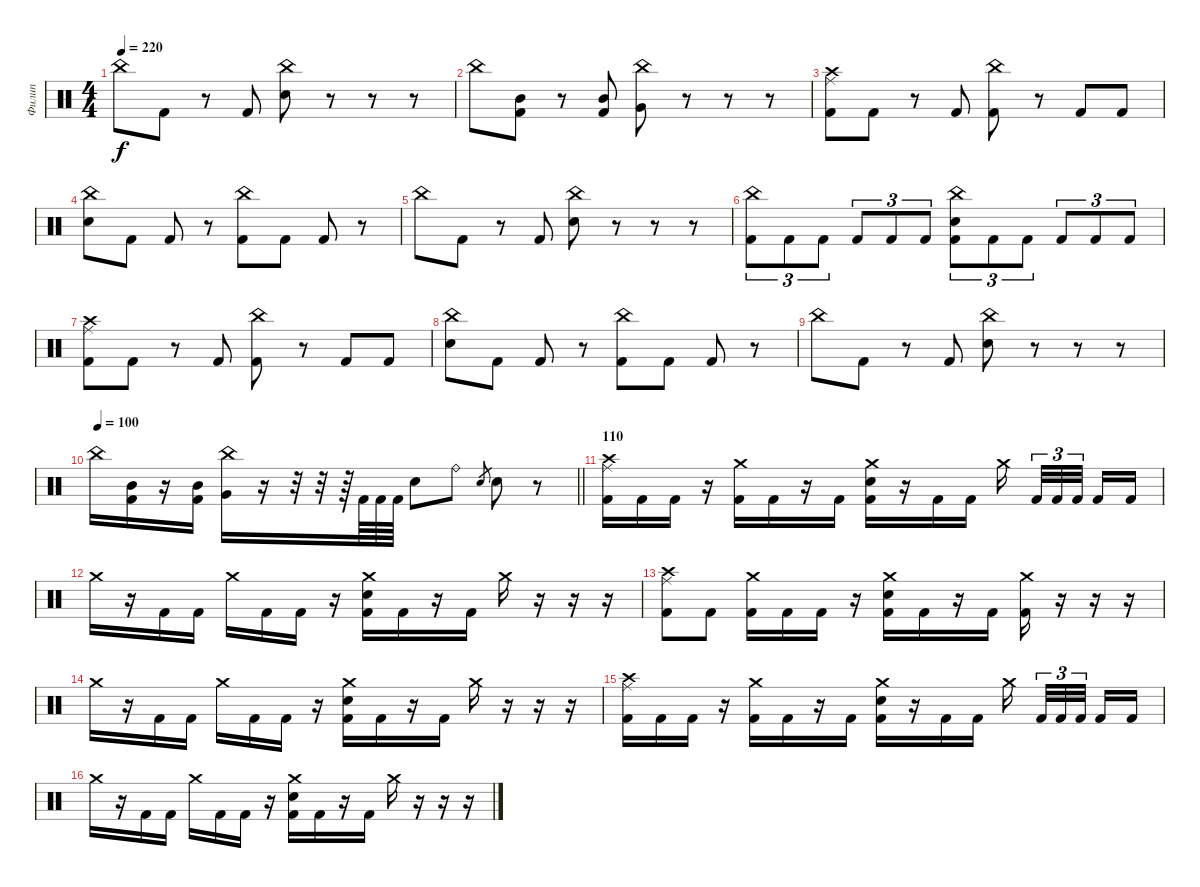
\track ("Филип" "Филип") {instrument percussion}
\staff {score}
\articulation defaults
\ts (4 4)
\tempo 220
\clef neutral
\ks c "China (hit)".8{dy f} "Kick (hit) 2".8
r.8 "Kick (hit) 2".8 ("China (hit)" "Electric Snare (hit)").8 r.8 r.8 r.8 |
"China (hit)".8 ("Mid Tom (hit)" "Kick (hit) 2").8 r.8 ("Mid Tom (hit)" "Kick (hit) 2").8 ("China (hit)" "Very Low Tom (hit)").8 r.8 r.8 r.8 |
("Ride (middle)" "Crash high (hit)" "Kick (hit) 2").8 "Kick (hit) 2".8 r.8 "Kick (hit) 2".8 ("China (hit)" "Kick (hit) 2").8 r.8 "Kick (hit) 2".8 "Kick (hit) 2".8 |
("China (hit)" "Electric Snare (hit)").8 "Kick (hit) 2".8 "Kick (hit) 2".8 r.8 ("China (hit)" "Kick (hit) 2").8 "Kick (hit) 2".8 "Kick (hit) 2".8 r.8 |
"China (hit)".8 "Kick (hit) 2".8 r.8 "Kick (hit) 2".8 ("China (hit)" "Electric Snare (hit)").8 r.8 r.8 r.8 |
("China (hit)" "Kick (hit) 2").8{tu (3 2)} "Kick (hit) 2".8{tu (3 2)} "Kick (hit) 2".8{tu (3 2)} "Kick (hit) 2".8{tu (3 2)} "Kick (hit) 2".8{tu (3 2)} "Kick (hit) 2".8{tu (3 2)} ("China (hit)" "Electric Snare (hit)" "Kick (hit) 2").8{tu (3 2)} "Kick (hit) 2".8{tu (3 2)} "Kick (hit) 2".8{tu (3 2)} "Kick (hit) 2".8{tu (3 2)} "Kick (hit) 2".8{tu (3 2)} "Kick (hit) 2".8{tu (3 2)} |
("Ride (middle)" "Crash high (hit)" "Kick (hit) 2").8 "Kick (hit) 2".8 r.8 "Kick (hit) 2".8 ("China (hit)" "Kick (hit) 2").8 r.8 "Kick (hit) 2".8 "Kick (hit) 2".8 |
("China (hit)" "Electric Snare (hit)").8 "Kick (hit) 2".8 "Kick (hit) 2".8 r.8 ("China (hit)" "Kick (hit) 2").8 "Kick (hit) 2".8 "Kick (hit) 2".8 r.8 |
"China (hit)".8 "Kick (hit) 2".8 r.8 "Kick (hit) 2".8 ("China (hit)" "Electric Snare (hit)").8 r.8 r.8 r.8 |
\tempo 110
\tempo 100
\barLineRight lightlight "China (hit)".16
("Mid Tom (hit)" "Kick (hit) 2").16 r.16 ("Mid Tom (hit)" "Kick (hit) 2").16 ("China (hit)" "Very Low Tom (hit)").16 r.16 r.32 r.32 r.64 "Kick (hit) 2".64 "Kick (hit) 2".64 "Kick (hit) 2".64 "Electric Snare (hit)".8 "Ride (bell)".8 "Electric Snare (hit)".8{gr} "Electric Snare (hit)".8 r.8 |
\section ("" "110")
("Crash high (hit)" "Ride (middle)" "Kick (hit) 2").16 "Kick (hit) 2".16 "Kick (hit) 2".16 r.16 ("Crash medium (hit)" "Kick (hit) 2").16 "Kick (hit) 2".16 r.16 "Kick (hit) 2".16 ("Crash medium (hit)" "Electric Snare (hit)" "Kick (hit) 2").16 r.16 "Kick (hit) 2".16 "Kick (hit) 2".16 "Crash medium (hit)".16{beam splitsecondary} "Kick (hit) 2".32{tu (3 2)} "Kick (hit) 2".32{tu (3 2)} "Kick (hit) 2".32{tu (3 2) beam splitsecondary} "Kick (hit) 2".16 "Kick (hit) 2".16 |
"Crash medium (hit)".16 r.16 "Kick (hit) 2".16 "Kick (hit) 2".16 "Crash medium (hit)".16 "Kick (hit) 2".16 "Kick (hit) 2".16 r.16 ("Crash medium (hit)" "Electric Snare (hit)" "Kick (hit) 2").16 "Kick (hit) 2".16 r.16 "Kick (hit) 2".16 "Crash medium (hit)".16 r.16 r.16 r.16 |
("Ride (middle)" "Crash high (hit)" "Kick (hit) 2").8 "Kick (hit) 2".8 ("Crash medium (hit)" "Kick (hit) 2").16 "Kick (hit) 2".16 "Kick (hit) 2".16 r.16 ("Crash medium (hit)" "Electric Snare (hit)" "Kick (hit) 2").16 "Kick (hit) 2".16 r.16 "Kick (hit) 2".16 ("Crash medium (hit)" "Kick (hit) 2").16 r.16 r.16 r.16 |
"Crash medium (hit)".16 r.16 "Kick (hit) 2".16 "Kick (hit) 2".16 "Crash medium (hit)".16 "Kick (hit) 2".16 "Kick (hit) 2".16 r.16 ("Crash medium (hit)" "Electric Snare (hit)" "Kick (hit) 2").16 "Kick (hit) 2".16 r.16 "Kick (hit) 2".16 "Crash medium (hit)".16 r.16 r.16 r.16 |
("Crash high (hit)" "Ride (middle)" "Kick (hit) 2").16 "Kick (hit) 2".16 "Kick (hit) 2".16 r.16 ("Crash medium (hit)" "Kick (hit) 2").16 "Kick (hit) 2".16 r.16 "Kick (hit) 2".16 ("Crash medium (hit)" "Electric Snare (hit)" "Kick (hit) 2").16 r.16 "Kick (hit) 2".16 "Kick (hit) 2".16 "Crash medium (hit)".16{beam splitsecondary} "Kick (hit) 2".32{tu (3 2)} "Kick (hit) 2".32{tu (3 2)} "Kick (hit) 2".32{tu (3 2) beam splitsecondary} "Kick (hit) 2".16 "Kick (hit) 2".16 |
"Crash medium (hit)".16 r.16 "Kick (hit) 2".16 "Kick (hit) 2".16 "Crash medium (hit)".16 "Kick (hit) 2".16 "Kick (hit) 2".16 r.16 ("Crash medium (hit)" "Electric Snare (hit)" "Kick (hit) 2").16 "Kick (hit) 2".16 r.16 "Kick (hit) 2".16 "Crash medium (hit)".16 r.16 r.16 r.16
